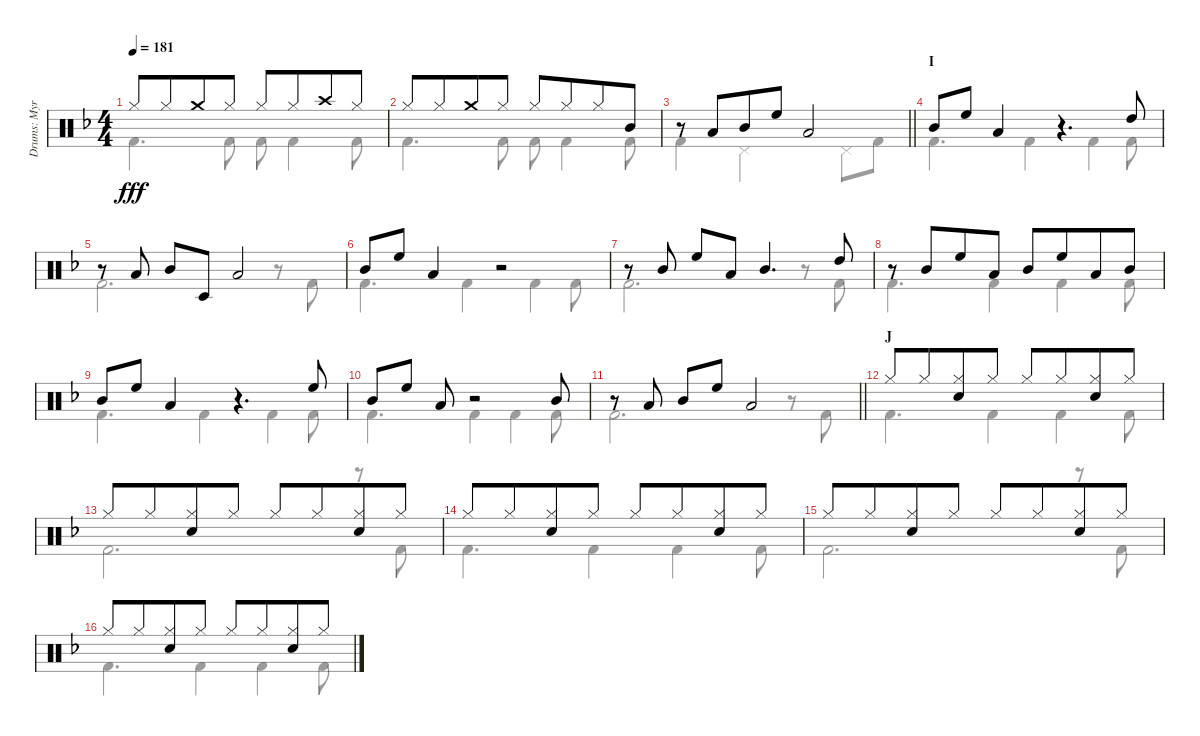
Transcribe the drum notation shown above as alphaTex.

\track ("Drums: Myron" "Drums: Myr") {instrument percussion}
\staff {score}
\articulation defaults
\voice
\ts (4 4)
\tempo 181
\clef neutral
\ks f "Hi-Hat (closed)".8{dy fff} "Hi-Hat (closed)".8{beam merge} "Crash medium (hit)".8 "Hi-Hat (closed)".8 "Hi-Hat (closed)".8 "Hi-Hat (closed)".8{beam merge} "Crash high (hit)".8 "Hi-Hat (closed)".8
|
"Hi-Hat (closed)".8 "Hi-Hat (closed)".8{beam merge} "Crash medium (hit)".8 "Hi-Hat (closed)".8 "Hi-Hat (closed)".8 "Hi-Hat (closed)".8{beam merge} "Hi-Hat (closed)".8 "Mid Tom (hit)".8 |
\barLineRight lightlight
r.8 "Low Tom (hit)".8{beam merge} "Mid Tom (hit)".8 "High Floor Tom (hit)".8 "Low Tom (hit)".2 |
\section ("" "I")
"Mid Tom (hit)".8 "High Floor Tom (hit)".8 "Low Tom (hit)".4 r.4{d} "High Tom (hit)".8 |
r.8 "Low Tom (hit)".8 "Mid Tom (hit)".8 "Timbale low (hit)".8 "Low Tom (hit)".2 |
"Mid Tom (hit)".8 "High Floor Tom (hit)".8 "Low Tom (hit)".4 r.2 |
r.8 "Mid Tom (hit)".8 "High Floor Tom (hit)".8 "Low Tom (hit)".8 "Mid Tom (hit)".4{d} "High Tom (hit)".8 |
r.8 "Mid Tom (hit)".8{beam merge} "High Floor Tom (hit)".8 "Low Tom (hit)".8 "Mid Tom (hit)".8 "High Floor Tom (hit)".8{beam merge} "Low Tom (hit)".8 "Mid Tom (hit)".8 |
"Mid Tom (hit)".8 "High Floor Tom (hit)".8 "Low Tom (hit)".4 r.4{d} "High Floor Tom (hit)".8 |
"Mid Tom (hit)".8 "High Floor Tom (hit)".8 "Low Tom (hit)".8 r.2 "Mid Tom (hit)".8 |
\barLineRight lightlight
r.8 "Low Tom (hit)".8 "Mid Tom (hit)".8 "High Floor Tom (hit)".8 "Low Tom (hit)".2 |
\section ("" "J")
"Hi-Hat (closed)".8 "Hi-Hat (closed)".8{beam merge} ("Hi-Hat (closed)" "Electric Snare (hit)").8 "Hi-Hat (closed)".8 "Hi-Hat (closed)".8 "Hi-Hat (closed)".8{beam merge} ("Hi-Hat (closed)" "Electric Snare (hit)").8 "Hi-Hat (closed)".8 |
"Hi-Hat (closed)".8 "Hi-Hat (closed)".8{beam merge} ("Hi-Hat (closed)" "Electric Snare (hit)").8 "Hi-Hat (closed)".8 "Hi-Hat (closed)".8 "Hi-Hat (closed)".8{beam merge} ("Hi-Hat (closed)" "Electric Snare (hit)").8 "Hi-Hat (closed)".8 |
"Hi-Hat (closed)".8 "Hi-Hat (closed)".8{beam merge} ("Hi-Hat (closed)" "Electric Snare (hit)").8 "Hi-Hat (closed)".8 "Hi-Hat (closed)".8 "Hi-Hat (closed)".8{beam merge} ("Hi-Hat (closed)" "Electric Snare (hit)").8 "Hi-Hat (closed)".8 |
"Hi-Hat (closed)".8 "Hi-Hat (closed)".8{beam merge} ("Hi-Hat (closed)" "Electric Snare (hit)").8 "Hi-Hat (closed)".8 "Hi-Hat (closed)".8 "Hi-Hat (closed)".8{beam merge} ("Hi-Hat (closed)" "Electric Snare (hit)").8 "Hi-Hat (closed)".8 |
"Hi-Hat (closed)".8 "Hi-Hat (closed)".8{beam merge} ("Hi-Hat (closed)" "Electric Snare (hit)").8 "Hi-Hat (closed)".8 "Hi-Hat (closed)".8 "Hi-Hat (closed)".8{beam merge} ("Hi-Hat (closed)" "Electric Snare (hit)").8 "Hi-Hat (closed)".8
\voice
\clef neutral
\ottava regular
\simile none
\ks f "Kick (hit) 2".4{d dy fff} "Kick (hit) 2".8 "Kick (hit) 2".8 "Kick (hit) 2".4 "Kick (hit) 2".8
|
"Kick (hit) 2".4{d} "Kick (hit) 2".8 "Kick (hit) 2".8 "Kick (hit) 2".4 "Kick (hit) 2".8 |
\barLineRight lightlight "Kick (hit) 2".4 "Pedal Hi-Hat (hit)".2 "Pedal Hi-Hat (hit)".8 "Kick (hit) 2".8
|
"Kick (hit) 2".4{d} "Kick (hit) 2".4 "Kick (hit) 2".4 "Kick (hit) 2".8 |
"Kick (hit) 2".2{d} r.8 "Kick (hit) 2".8 |
"Kick (hit) 2".4{d} "Kick (hit) 2".4 "Kick (hit) 2".4 "Kick (hit) 2".8 |
"Kick (hit) 2".2{d} r.8 "Kick (hit) 2".8 |
"Kick (hit) 2".4{d} "Kick (hit) 2".4 "Kick (hit) 2".4 "Kick (hit) 2".8 |
"Kick (hit) 2".4{d} "Kick (hit) 2".4 "Kick (hit) 2".4 "Kick (hit) 2".8 |
"Kick (hit) 2".4{d} "Kick (hit) 2".4 "Kick (hit) 2".4 "Kick (hit) 2".8 |
\barLineRight lightlight "Kick (hit) 2".2{d}
r.8 "Kick (hit) 2".8 |
"Kick (hit) 2".4{d} "Kick (hit) 2".4 "Kick (hit) 2".4 "Kick (hit) 2".8 |
"Kick (hit) 2".2{d} r.8 "Kick (hit) 2".8 |
"Kick (hit) 2".4{d} "Kick (hit) 2".4 "Kick (hit) 2".4 "Kick (hit) 2".8 |
"Kick (hit) 2".2{d} r.8 "Kick (hit) 2".8 |
"Kick (hit) 2".4{d} "Kick (hit) 2".4 "Kick (hit) 2".4 "Kick (hit) 2".8
